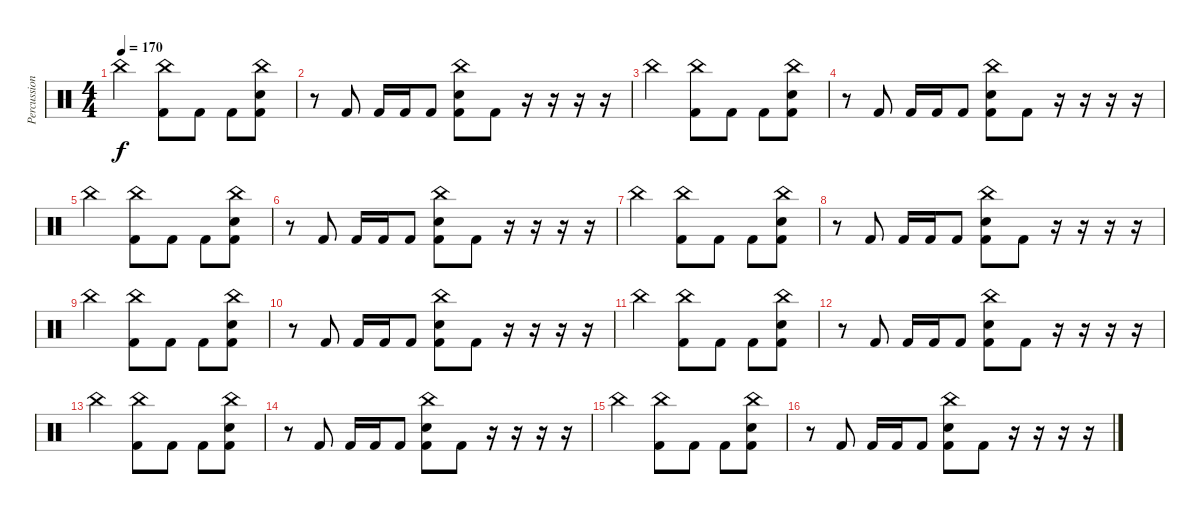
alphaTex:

\track ("Percussions" "Percussion") {instrument percussion}
\staff {score}
\articulation defaults
\ts (4 4)
\tempo 170
\clef neutral
\ks c "China (hit)".2{dy f}
("China (hit)" "Kick (hit) 2").8 "Kick (hit) 2".8 "Kick (hit) 2".8 ("China (hit)" "Electric Snare (hit)" "Kick (hit) 2").8 |
r.8 "Kick (hit) 2".8 "Kick (hit) 2".16 "Kick (hit) 2".16 "Kick (hit) 2".8 ("China (hit)" "Electric Snare (hit)" "Kick (hit) 2").8 "Kick (hit) 2".8 r.16 r.16 r.16 r.16 |
"China (hit)".2 ("China (hit)" "Kick (hit) 2").8 "Kick (hit) 2".8 "Kick (hit) 2".8 ("China (hit)" "Electric Snare (hit)" "Kick (hit) 2").8 |
r.8 "Kick (hit) 2".8 "Kick (hit) 2".16 "Kick (hit) 2".16 "Kick (hit) 2".8 ("China (hit)" "Electric Snare (hit)" "Kick (hit) 2").8 "Kick (hit) 2".8 r.16 r.16 r.16 r.16 |
"China (hit)".2 ("China (hit)" "Kick (hit) 2").8 "Kick (hit) 2".8 "Kick (hit) 2".8 ("China (hit)" "Electric Snare (hit)" "Kick (hit) 2").8 |
r.8 "Kick (hit) 2".8 "Kick (hit) 2".16 "Kick (hit) 2".16 "Kick (hit) 2".8 ("China (hit)" "Electric Snare (hit)" "Kick (hit) 2").8 "Kick (hit) 2".8 r.16 r.16 r.16 r.16 |
"China (hit)".2 ("China (hit)" "Kick (hit) 2").8 "Kick (hit) 2".8 "Kick (hit) 2".8 ("China (hit)" "Electric Snare (hit)" "Kick (hit) 2").8 |
r.8 "Kick (hit) 2".8 "Kick (hit) 2".16 "Kick (hit) 2".16 "Kick (hit) 2".8 ("China (hit)" "Electric Snare (hit)" "Kick (hit) 2").8 "Kick (hit) 2".8 r.16 r.16 r.16 r.16 |
"China (hit)".2 ("China (hit)" "Kick (hit) 2").8 "Kick (hit) 2".8 "Kick (hit) 2".8 ("China (hit)" "Electric Snare (hit)" "Kick (hit) 2").8 |
r.8 "Kick (hit) 2".8 "Kick (hit) 2".16 "Kick (hit) 2".16 "Kick (hit) 2".8 ("China (hit)" "Electric Snare (hit)" "Kick (hit) 2").8 "Kick (hit) 2".8 r.16 r.16 r.16 r.16 |
"China (hit)".2 ("China (hit)" "Kick (hit) 2").8 "Kick (hit) 2".8 "Kick (hit) 2".8 ("China (hit)" "Electric Snare (hit)" "Kick (hit) 2").8 |
r.8 "Kick (hit) 2".8 "Kick (hit) 2".16 "Kick (hit) 2".16 "Kick (hit) 2".8 ("China (hit)" "Electric Snare (hit)" "Kick (hit) 2").8 "Kick (hit) 2".8 r.16 r.16 r.16 r.16 |
"China (hit)".2 ("China (hit)" "Kick (hit) 2").8 "Kick (hit) 2".8 "Kick (hit) 2".8 ("China (hit)" "Electric Snare (hit)" "Kick (hit) 2").8 |
r.8 "Kick (hit) 2".8 "Kick (hit) 2".16 "Kick (hit) 2".16 "Kick (hit) 2".8 ("China (hit)" "Electric Snare (hit)" "Kick (hit) 2").8 "Kick (hit) 2".8 r.16 r.16 r.16 r.16 |
"China (hit)".2 ("China (hit)" "Kick (hit) 2").8 "Kick (hit) 2".8 "Kick (hit) 2".8 ("China (hit)" "Electric Snare (hit)" "Kick (hit) 2").8 |
r.8 "Kick (hit) 2".8 "Kick (hit) 2".16 "Kick (hit) 2".16 "Kick (hit) 2".8 ("China (hit)" "Electric Snare (hit)" "Kick (hit) 2").8 "Kick (hit) 2".8 r.16 r.16 r.16 r.16
